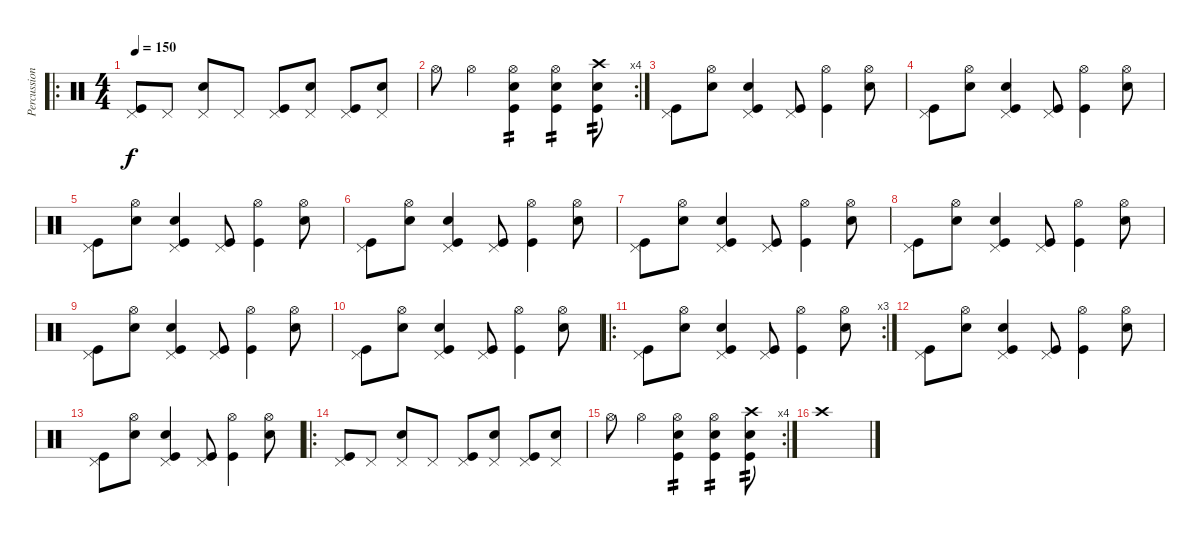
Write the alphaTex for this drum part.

\track ("Percussion" "Percussion") {instrument percussion}
\staff {score}
\articulation defaults
\ro
\ts (4 4)
\tempo 150
\clef neutral
\ks c
("Pedal Hi-Hat (hit)" "Kick (hit)").8{dy f} "Pedal Hi-Hat (hit)".8 ("Pedal Hi-Hat (hit)" "Snare (hit) 2").8 "Pedal Hi-Hat (hit)".8 ("Pedal Hi-Hat (hit)" "Kick (hit)").8 ("Pedal Hi-Hat (hit)" "Snare (hit) 2").8 ("Pedal Hi-Hat (hit)" "Kick (hit)").8 ("Pedal Hi-Hat (hit)" "Snare (hit) 2").8 |
\rc 4 "Hi-Hat (open)".8 "Hi-Hat (open)".4
("Hi-Hat (open)" "Snare (hit) 2" "Kick (hit)").4{tp 2} ("Hi-Hat (open)" "Snare (hit) 2" "Kick (hit)").4{tp 2} ("Crash high (hit)" "Snare (hit) 2" "Kick (hit)").8{tp 2} |
("Pedal Hi-Hat (hit)" "Kick (hit)").8 ("Hi-Hat (open)" "Snare (hit) 2").8 ("Pedal Hi-Hat (hit)" "Snare (hit) 2" "Kick (hit)").4 ("Pedal Hi-Hat (hit)" "Kick (hit)").8 ("Hi-Hat (open)" "Kick (hit)").4 ("Hi-Hat (open)" "Snare (hit) 2").8 |
("Pedal Hi-Hat (hit)" "Kick (hit)").8 ("Hi-Hat (open)" "Snare (hit) 2").8 ("Pedal Hi-Hat (hit)" "Snare (hit) 2" "Kick (hit)").4 ("Pedal Hi-Hat (hit)" "Kick (hit)").8 ("Hi-Hat (open)" "Kick (hit)").4 ("Hi-Hat (open)" "Snare (hit) 2").8 |
("Pedal Hi-Hat (hit)" "Kick (hit)").8 ("Hi-Hat (open)" "Snare (hit) 2").8 ("Pedal Hi-Hat (hit)" "Snare (hit) 2" "Kick (hit)").4 ("Pedal Hi-Hat (hit)" "Kick (hit)").8 ("Hi-Hat (open)" "Kick (hit)").4 ("Hi-Hat (open)" "Snare (hit) 2").8 |
("Pedal Hi-Hat (hit)" "Kick (hit)").8 ("Hi-Hat (open)" "Snare (hit) 2").8 ("Pedal Hi-Hat (hit)" "Snare (hit) 2" "Kick (hit)").4 ("Pedal Hi-Hat (hit)" "Kick (hit)").8 ("Hi-Hat (open)" "Kick (hit)").4 ("Hi-Hat (open)" "Snare (hit) 2").8 |
("Pedal Hi-Hat (hit)" "Kick (hit)").8 ("Hi-Hat (open)" "Snare (hit) 2").8 ("Pedal Hi-Hat (hit)" "Snare (hit) 2" "Kick (hit)").4 ("Pedal Hi-Hat (hit)" "Kick (hit)").8 ("Hi-Hat (open)" "Kick (hit)").4 ("Hi-Hat (open)" "Snare (hit) 2").8 |
("Pedal Hi-Hat (hit)" "Kick (hit)").8 ("Hi-Hat (open)" "Snare (hit) 2").8 ("Pedal Hi-Hat (hit)" "Snare (hit) 2" "Kick (hit)").4 ("Pedal Hi-Hat (hit)" "Kick (hit)").8 ("Hi-Hat (open)" "Kick (hit)").4 ("Hi-Hat (open)" "Snare (hit) 2").8 |
("Pedal Hi-Hat (hit)" "Kick (hit)").8 ("Hi-Hat (open)" "Snare (hit) 2").8 ("Pedal Hi-Hat (hit)" "Snare (hit) 2" "Kick (hit)").4 ("Pedal Hi-Hat (hit)" "Kick (hit)").8 ("Hi-Hat (open)" "Kick (hit)").4 ("Hi-Hat (open)" "Snare (hit) 2").8 |
("Pedal Hi-Hat (hit)" "Kick (hit)").8 ("Hi-Hat (open)" "Snare (hit) 2").8 ("Pedal Hi-Hat (hit)" "Snare (hit) 2" "Kick (hit)").4 ("Pedal Hi-Hat (hit)" "Kick (hit)").8 ("Hi-Hat (open)" "Kick (hit)").4 ("Hi-Hat (open)" "Snare (hit) 2").8 |
\ro
\rc 3
("Pedal Hi-Hat (hit)" "Kick (hit)").8 ("Hi-Hat (open)" "Snare (hit) 2").8 ("Pedal Hi-Hat (hit)" "Snare (hit) 2" "Kick (hit)").4 ("Pedal Hi-Hat (hit)" "Kick (hit)").8 ("Hi-Hat (open)" "Kick (hit)").4 ("Hi-Hat (open)" "Snare (hit) 2").8 |
("Pedal Hi-Hat (hit)" "Kick (hit)").8 ("Hi-Hat (open)" "Snare (hit) 2").8 ("Pedal Hi-Hat (hit)" "Snare (hit) 2" "Kick (hit)").4 ("Pedal Hi-Hat (hit)" "Kick (hit)").8 ("Hi-Hat (open)" "Kick (hit)").4 ("Hi-Hat (open)" "Snare (hit) 2").8 |
("Pedal Hi-Hat (hit)" "Kick (hit)").8 ("Hi-Hat (open)" "Snare (hit) 2").8 ("Pedal Hi-Hat (hit)" "Snare (hit) 2" "Kick (hit)").4 ("Pedal Hi-Hat (hit)" "Kick (hit)").8 ("Hi-Hat (open)" "Kick (hit)").4 ("Hi-Hat (open)" "Snare (hit) 2").8 |
\ro
("Pedal Hi-Hat (hit)" "Kick (hit)").8 "Pedal Hi-Hat (hit)".8 ("Pedal Hi-Hat (hit)" "Snare (hit) 2").8 "Pedal Hi-Hat (hit)".8 ("Pedal Hi-Hat (hit)" "Kick (hit)").8 ("Pedal Hi-Hat (hit)" "Snare (hit) 2").8 ("Pedal Hi-Hat (hit)" "Kick (hit)").8 ("Pedal Hi-Hat (hit)" "Snare (hit) 2").8 |
\rc 4 "Hi-Hat (open)".8 "Hi-Hat (open)".4
("Hi-Hat (open)" "Snare (hit) 2" "Kick (hit)").4{tp 2} ("Hi-Hat (open)" "Snare (hit) 2" "Kick (hit)").4{tp 2} ("Crash high (hit)" "Snare (hit) 2" "Kick (hit)").8{tp 2} |
"Crash high (hit)".1
